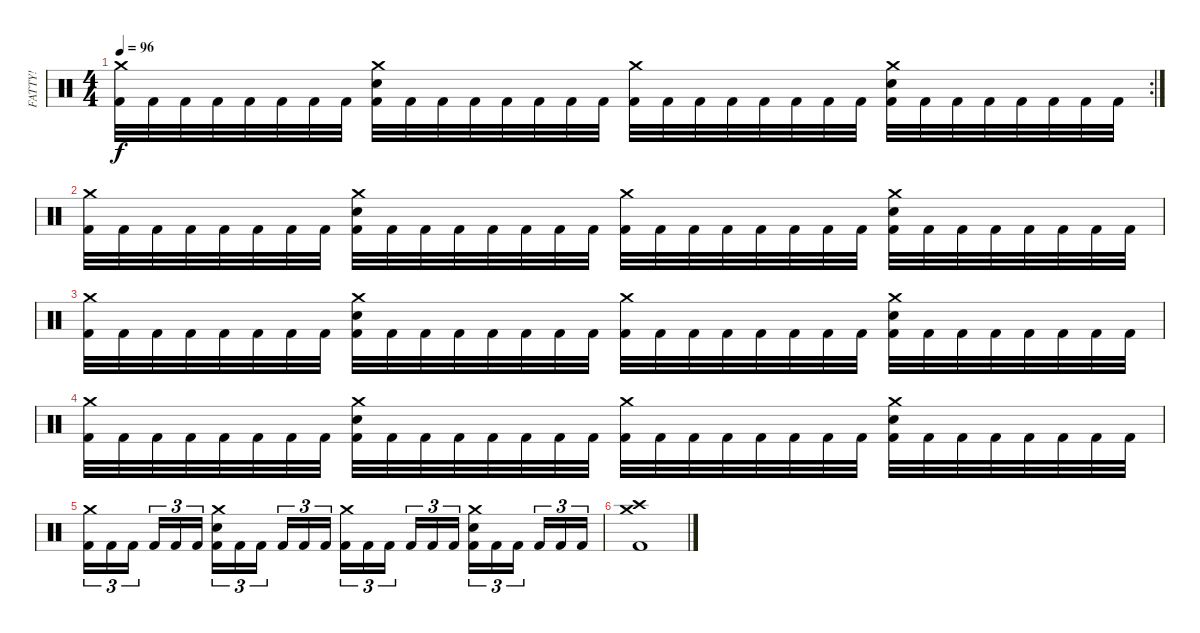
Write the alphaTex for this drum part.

\track ("FATTY!" "FATTY!") {instrument percussion}
\staff {score}
\articulation defaults
\rc 2
\ts (4 4)
\tempo 96
\clef neutral
\ks c
("Crash medium (hit)" "Kick (hit) 2").32{dy f} "Kick (hit) 2".32 "Kick (hit) 2".32 "Kick (hit) 2".32 "Kick (hit) 2".32 "Kick (hit) 2".32 "Kick (hit) 2".32 "Kick (hit) 2".32 ("Crash medium (hit)" "Electric Snare (hit)" "Kick (hit) 2").32 "Kick (hit) 2".32 "Kick (hit) 2".32 "Kick (hit) 2".32 "Kick (hit) 2".32 "Kick (hit) 2".32 "Kick (hit) 2".32 "Kick (hit) 2".32 ("Crash medium (hit)" "Kick (hit) 2").32 "Kick (hit) 2".32 "Kick (hit) 2".32 "Kick (hit) 2".32 "Kick (hit) 2".32 "Kick (hit) 2".32 "Kick (hit) 2".32 "Kick (hit) 2".32 ("Crash medium (hit)" "Electric Snare (hit)" "Kick (hit) 2").32 "Kick (hit) 2".32 "Kick (hit) 2".32 "Kick (hit) 2".32 "Kick (hit) 2".32 "Kick (hit) 2".32 "Kick (hit) 2".32 "Kick (hit) 2".32 |
("Crash medium (hit)" "Kick (hit) 2").32 "Kick (hit) 2".32 "Kick (hit) 2".32 "Kick (hit) 2".32 "Kick (hit) 2".32 "Kick (hit) 2".32 "Kick (hit) 2".32 "Kick (hit) 2".32 ("Crash medium (hit)" "Electric Snare (hit)" "Kick (hit) 2").32 "Kick (hit) 2".32 "Kick (hit) 2".32 "Kick (hit) 2".32 "Kick (hit) 2".32 "Kick (hit) 2".32 "Kick (hit) 2".32 "Kick (hit) 2".32 ("Crash medium (hit)" "Kick (hit) 2").32 "Kick (hit) 2".32 "Kick (hit) 2".32 "Kick (hit) 2".32 "Kick (hit) 2".32 "Kick (hit) 2".32 "Kick (hit) 2".32 "Kick (hit) 2".32 ("Crash medium (hit)" "Electric Snare (hit)" "Kick (hit) 2").32 "Kick (hit) 2".32 "Kick (hit) 2".32 "Kick (hit) 2".32 "Kick (hit) 2".32 "Kick (hit) 2".32 "Kick (hit) 2".32 "Kick (hit) 2".32 |
("Crash medium (hit)" "Kick (hit) 2").32 "Kick (hit) 2".32 "Kick (hit) 2".32 "Kick (hit) 2".32 "Kick (hit) 2".32 "Kick (hit) 2".32 "Kick (hit) 2".32 "Kick (hit) 2".32 ("Crash medium (hit)" "Electric Snare (hit)" "Kick (hit) 2").32 "Kick (hit) 2".32 "Kick (hit) 2".32 "Kick (hit) 2".32 "Kick (hit) 2".32 "Kick (hit) 2".32 "Kick (hit) 2".32 "Kick (hit) 2".32 ("Crash medium (hit)" "Kick (hit) 2").32 "Kick (hit) 2".32 "Kick (hit) 2".32 "Kick (hit) 2".32 "Kick (hit) 2".32 "Kick (hit) 2".32 "Kick (hit) 2".32 "Kick (hit) 2".32 ("Crash medium (hit)" "Electric Snare (hit)" "Kick (hit) 2").32 "Kick (hit) 2".32 "Kick (hit) 2".32 "Kick (hit) 2".32 "Kick (hit) 2".32 "Kick (hit) 2".32 "Kick (hit) 2".32 "Kick (hit) 2".32 |
("Crash medium (hit)" "Kick (hit) 2").32 "Kick (hit) 2".32 "Kick (hit) 2".32 "Kick (hit) 2".32 "Kick (hit) 2".32 "Kick (hit) 2".32 "Kick (hit) 2".32 "Kick (hit) 2".32 ("Crash medium (hit)" "Electric Snare (hit)" "Kick (hit) 2").32 "Kick (hit) 2".32 "Kick (hit) 2".32 "Kick (hit) 2".32 "Kick (hit) 2".32 "Kick (hit) 2".32 "Kick (hit) 2".32 "Kick (hit) 2".32 ("Crash medium (hit)" "Kick (hit) 2").32 "Kick (hit) 2".32 "Kick (hit) 2".32 "Kick (hit) 2".32 "Kick (hit) 2".32 "Kick (hit) 2".32 "Kick (hit) 2".32 "Kick (hit) 2".32 ("Crash medium (hit)" "Electric Snare (hit)" "Kick (hit) 2").32 "Kick (hit) 2".32 "Kick (hit) 2".32 "Kick (hit) 2".32 "Kick (hit) 2".32 "Kick (hit) 2".32 "Kick (hit) 2".32 "Kick (hit) 2".32 |
("Crash medium (hit)" "Kick (hit) 2").16{tu (3 2)} "Kick (hit) 2".16{tu (3 2)} "Kick (hit) 2".16{tu (3 2)} "Kick (hit) 2".16{tu (3 2)} "Kick (hit) 2".16{tu (3 2)} "Kick (hit) 2".16{tu (3 2)} ("Crash medium (hit)" "Electric Snare (hit)" "Kick (hit) 2").16{tu (3 2)} "Kick (hit) 2".16{tu (3 2)} "Kick (hit) 2".16{tu (3 2)} "Kick (hit) 2".16{tu (3 2)} "Kick (hit) 2".16{tu (3 2)} "Kick (hit) 2".16{tu (3 2)} ("Crash medium (hit)" "Kick (hit) 2").16{tu (3 2)} "Kick (hit) 2".16{tu (3 2)} "Kick (hit) 2".16{tu (3 2)} "Kick (hit) 2".16{tu (3 2)} "Kick (hit) 2".16{tu (3 2)} "Kick (hit) 2".16{tu (3 2)} ("Crash medium (hit)" "Electric Snare (hit)" "Kick (hit) 2").16{tu (3 2)} "Kick (hit) 2".16{tu (3 2)} "Kick (hit) 2".16{tu (3 2)} "Kick (hit) 2".16{tu (3 2)} "Kick (hit) 2".16{tu (3 2)} "Kick (hit) 2".16{tu (3 2)} |
("Crash medium (hit)" "Crash high (hit)" "Kick (hit) 2").1
